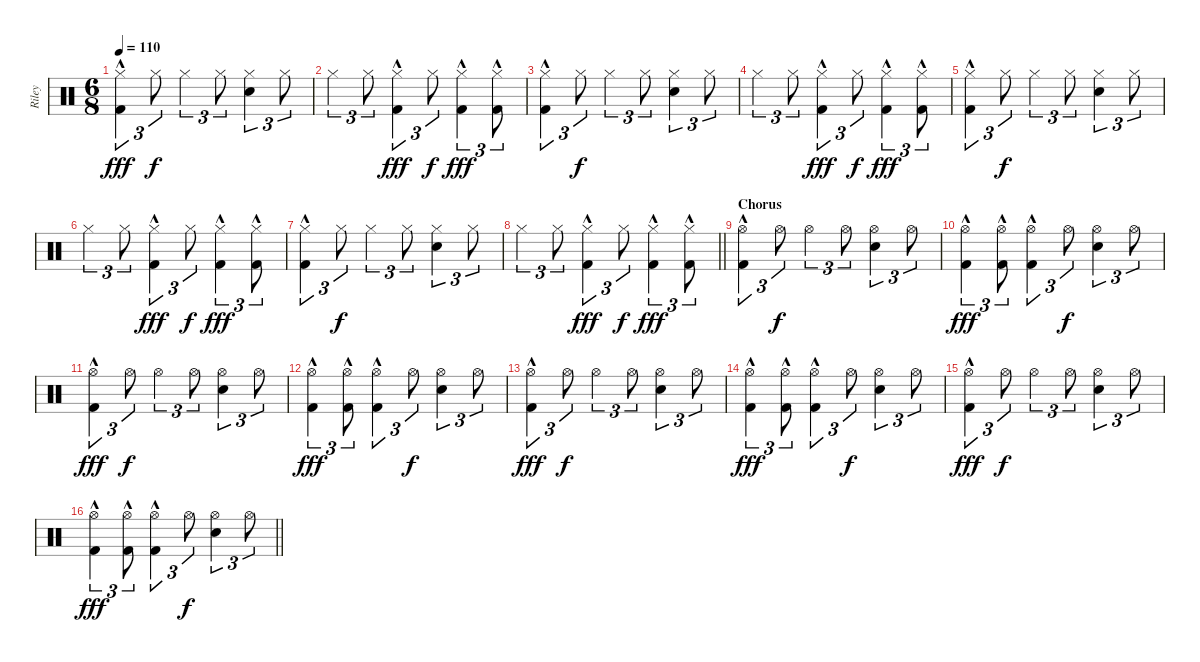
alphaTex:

\track ("Riley" "Riley") {instrument percussion}
\staff {score}
\articulation defaults
\ts (6 8)
\tempo 110
\clef neutral
\ks c
("Hi-Hat (closed)" "Kick (hit) 2"{hac}).4{tu (3 2) dy fff} "Hi-Hat (closed)".8{tu (3 2) dy f} "Hi-Hat (closed)".4{tu (3 2)} "Hi-Hat (closed)".8{tu (3 2)} ("Hi-Hat (closed)" "Electric Snare (hit)").4{tu (3 2)} "Hi-Hat (closed)".8{tu (3 2)} |
"Hi-Hat (closed)".4{tu (3 2)} "Hi-Hat (closed)".8{tu (3 2)} ("Hi-Hat (closed)" "Kick (hit) 2"{hac}).4{tu (3 2) dy fff} "Hi-Hat (closed)".8{tu (3 2) dy f} ("Hi-Hat (closed)" "Kick (hit) 2"{hac}).4{tu (3 2) dy fff} ("Hi-Hat (closed)" "Kick (hit) 2"{hac}).8{tu (3 2)} |
("Hi-Hat (closed)" "Kick (hit) 2"{hac}).4{tu (3 2)} "Hi-Hat (closed)".8{tu (3 2) dy f} "Hi-Hat (closed)".4{tu (3 2)} "Hi-Hat (closed)".8{tu (3 2)} ("Hi-Hat (closed)" "Electric Snare (hit)").4{tu (3 2)} "Hi-Hat (closed)".8{tu (3 2)} |
"Hi-Hat (closed)".4{tu (3 2)} "Hi-Hat (closed)".8{tu (3 2)} ("Hi-Hat (closed)" "Kick (hit) 2"{hac}).4{tu (3 2) dy fff} "Hi-Hat (closed)".8{tu (3 2) dy f} ("Hi-Hat (closed)" "Kick (hit) 2"{hac}).4{tu (3 2) dy fff} ("Hi-Hat (closed)" "Kick (hit) 2"{hac}).8{tu (3 2)} |
("Hi-Hat (closed)" "Kick (hit) 2"{hac}).4{tu (3 2)} "Hi-Hat (closed)".8{tu (3 2) dy f} "Hi-Hat (closed)".4{tu (3 2)} "Hi-Hat (closed)".8{tu (3 2)} ("Hi-Hat (closed)" "Electric Snare (hit)").4{tu (3 2)} "Hi-Hat (closed)".8{tu (3 2)} |
"Hi-Hat (closed)".4{tu (3 2)} "Hi-Hat (closed)".8{tu (3 2)} ("Hi-Hat (closed)" "Kick (hit) 2"{hac}).4{tu (3 2) dy fff} "Hi-Hat (closed)".8{tu (3 2) dy f} ("Hi-Hat (closed)" "Kick (hit) 2"{hac}).4{tu (3 2) dy fff} ("Hi-Hat (closed)" "Kick (hit) 2"{hac}).8{tu (3 2)} |
("Hi-Hat (closed)" "Kick (hit) 2"{hac}).4{tu (3 2)} "Hi-Hat (closed)".8{tu (3 2) dy f} "Hi-Hat (closed)".4{tu (3 2)} "Hi-Hat (closed)".8{tu (3 2)} ("Hi-Hat (closed)" "Electric Snare (hit)").4{tu (3 2)} "Hi-Hat (closed)".8{tu (3 2)} |
\barLineRight lightlight "Hi-Hat (closed)".4{tu (3 2)} "Hi-Hat (closed)".8{tu (3 2)}
("Hi-Hat (closed)" "Kick (hit) 2"{hac}).4{tu (3 2) dy fff} "Hi-Hat (closed)".8{tu (3 2) dy f} ("Hi-Hat (closed)" "Kick (hit) 2"{hac}).4{tu (3 2) dy fff} ("Hi-Hat (closed)" "Kick (hit) 2"{hac}).8{tu (3 2)} |
\section ("" "Chorus")
("Hi-Hat (open)" "Kick (hit) 2"{hac}).4{tu (3 2)} "Hi-Hat (open)".8{tu (3 2) dy f} "Hi-Hat (open)".4{tu (3 2)} "Hi-Hat (open)".8{tu (3 2)} ("Hi-Hat (open)" "Electric Snare (hit)").4{tu (3 2)} "Hi-Hat (open)".8{tu (3 2)} |
("Hi-Hat (open)" "Kick (hit) 2"{hac}).4{tu (3 2) dy fff} ("Hi-Hat (open)" "Kick (hit) 2"{hac}).8{tu (3 2)} ("Hi-Hat (open)" "Kick (hit) 2"{hac}).4{tu (3 2)} "Hi-Hat (open)".8{tu (3 2) dy f} ("Hi-Hat (open)" "Electric Snare (hit)").4{tu (3 2)} "Hi-Hat (open)".8{tu (3 2)} |
("Hi-Hat (open)" "Kick (hit) 2"{hac}).4{tu (3 2) dy fff} "Hi-Hat (open)".8{tu (3 2) dy f} "Hi-Hat (open)".4{tu (3 2)} "Hi-Hat (open)".8{tu (3 2)} ("Hi-Hat (open)" "Electric Snare (hit)").4{tu (3 2)} "Hi-Hat (open)".8{tu (3 2)} |
("Hi-Hat (open)" "Kick (hit) 2"{hac}).4{tu (3 2) dy fff} ("Hi-Hat (open)" "Kick (hit) 2"{hac}).8{tu (3 2)} ("Hi-Hat (open)" "Kick (hit) 2"{hac}).4{tu (3 2)} "Hi-Hat (open)".8{tu (3 2) dy f} ("Hi-Hat (open)" "Electric Snare (hit)").4{tu (3 2)} "Hi-Hat (open)".8{tu (3 2)} |
("Hi-Hat (open)" "Kick (hit) 2"{hac}).4{tu (3 2) dy fff} "Hi-Hat (open)".8{tu (3 2) dy f} "Hi-Hat (open)".4{tu (3 2)} "Hi-Hat (open)".8{tu (3 2)} ("Hi-Hat (open)" "Electric Snare (hit)").4{tu (3 2)} "Hi-Hat (open)".8{tu (3 2)} |
("Hi-Hat (open)" "Kick (hit) 2"{hac}).4{tu (3 2) dy fff} ("Hi-Hat (open)" "Kick (hit) 2"{hac}).8{tu (3 2)} ("Hi-Hat (open)" "Kick (hit) 2"{hac}).4{tu (3 2)} "Hi-Hat (open)".8{tu (3 2) dy f} ("Hi-Hat (open)" "Electric Snare (hit)").4{tu (3 2)} "Hi-Hat (open)".8{tu (3 2)} |
("Hi-Hat (open)" "Kick (hit) 2"{hac}).4{tu (3 2) dy fff} "Hi-Hat (open)".8{tu (3 2) dy f} "Hi-Hat (open)".4{tu (3 2)} "Hi-Hat (open)".8{tu (3 2)} ("Hi-Hat (open)" "Electric Snare (hit)").4{tu (3 2)} "Hi-Hat (open)".8{tu (3 2)} |
\barLineRight lightlight
("Hi-Hat (open)" "Kick (hit) 2"{hac}).4{tu (3 2) dy fff} ("Hi-Hat (open)" "Kick (hit) 2"{hac}).8{tu (3 2)} ("Hi-Hat (open)" "Kick (hit) 2"{hac}).4{tu (3 2)} "Hi-Hat (open)".8{tu (3 2) dy f} ("Hi-Hat (open)" "Electric Snare (hit)").4{tu (3 2)} "Hi-Hat (open)".8{tu (3 2)}
